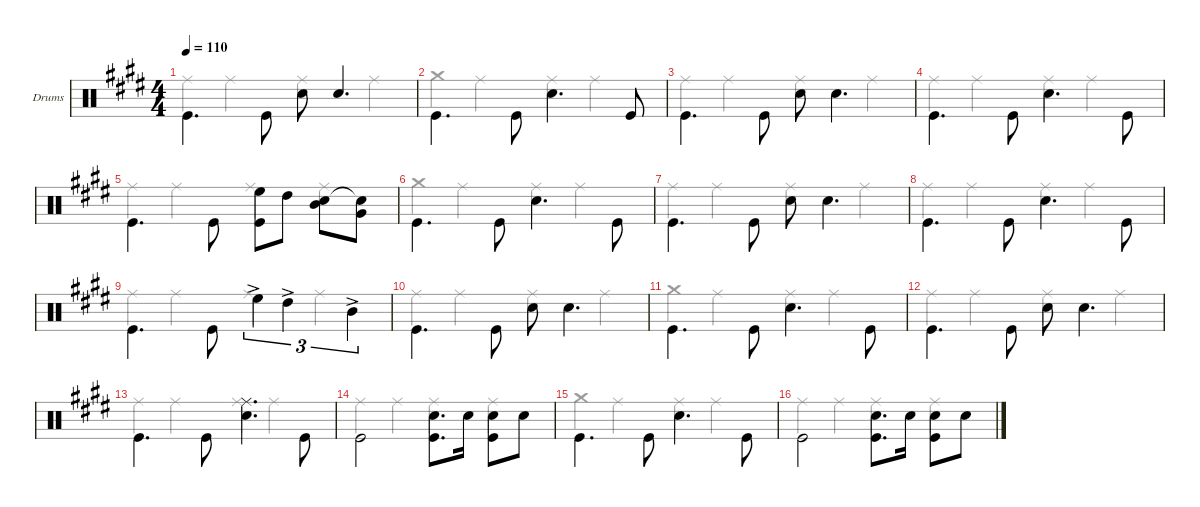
\hideDynamics
\bracketExtendMode groupsimilarinstruments
\multiBarRest
\firstSystemTrackNameOrientation horizontal
\otherSystemsTrackNameOrientation horizontal
\track ("Drumkit" "Drums") {multiBarRest instrument percussion}
\staff {score}
\articulation defaults
\voice
\ts (4 4)
\tempo 110
\clef neutral
\ks e "Kick (hit)".4{d dy f beam invert} "Kick (hit)".8{beam invert} "Snare (hit) 2".8{beam invert} "Snare (hit) 2".4{d}
|
"Kick (hit)".4{d beam invert} "Kick (hit)".8 "Snare (hit) 2".4{d beam invert} "Kick (hit)".8 |
"Kick (hit)".4{d beam invert} "Kick (hit)".8{beam invert} "Snare (hit) 2".8{beam invert} "Snare (hit) 2".4{d beam invert} |
"Kick (hit)".4{d beam invert} "Kick (hit)".8{beam invert} "Snare (hit) 2".4{d beam invert} "Kick (hit)".8{beam invert} |
"Kick (hit)".4{d beam invert} "Kick (hit)".8{beam invert} ("High Floor Tom (hit)" "Kick (hit)").8{beam invert} "High Tom (hit)".8 ("Mid Tom (hit)" "Snare (hit) 2").8{beam invert} ("Very Low Tom (hit)" "Snare (hit) 2"{t}).8 |
"Kick (hit)".4{d beam invert} "Kick (hit)".8 "Snare (hit) 2".4{d beam invert} "Kick (hit)".8{beam invert} |
"Kick (hit)".4{d beam invert} "Kick (hit)".8{beam invert} "Snare (hit) 2".8{beam invert} "Snare (hit) 2".4{d beam invert} |
"Kick (hit)".4{d} "Kick (hit)".8{beam invert} "Snare (hit) 2".4{d} "Kick (hit)".8{beam invert} |
"Kick (hit)".4{d} "Kick (hit)".8{beam invert} "High Floor Tom (hit)"{ac}.4{tu (3 2) beam invert} "High Tom (hit)"{ac}.4{tu (3 2) beam invert} "Mid Tom (hit)"{ac}.4{tu (3 2) beam invert} |
"Kick (hit)".4{d beam invert} "Kick (hit)".8{beam invert} "Snare (hit) 2".8 "Snare (hit) 2".4{d beam invert} |
"Kick (hit)".4{d} "Kick (hit)".8{beam invert} "Snare (hit) 2".4{d} "Kick (hit)".8{beam invert} |
"Kick (hit)".4{d beam invert} "Kick (hit)".8{beam invert} "Snare (hit) 2".8{beam invert} "Snare (hit) 2".4{d beam invert} |
"Kick (hit)".4{d beam invert} "Kick (hit)".8{beam invert} ("Snare (hit) 2" "Ride (middle)").4{d beam invert} "Kick (hit)".8{beam invert} |
"Kick (hit)".2{beam invert} ("Kick (hit)" "Snare (hit) 2").8{d beam invert} "Snare (hit) 2".16 ("Kick (hit)" "Snare (hit) 2").8{beam invert} "Snare (hit) 2".8 |
"Kick (hit)".4{d beam invert} "Kick (hit)".8{beam invert} "Snare (hit) 2".4{d beam invert} "Kick (hit)".8{beam invert} |
"Kick (hit)".2{beam invert} ("Kick (hit)" "Snare (hit) 2").8{d beam invert} "Snare (hit) 2".16 ("Kick (hit)" "Snare (hit) 2").8{beam invert} "Snare (hit) 2".8
\voice
\clef neutral
\ottava regular
\simile none
\ks e
|
|
|
|
|
|
|
|
|
|
|
|
|
|
|
\voice
\clef neutral
\ottava regular
\simile none
\ks e
|
|
|
|
|
|
|
|
|
|
|
|
|
|
|
\voice
\clef neutral
\ottava regular
\simile none
\ks e "Ride (middle)".4{dy f} "Ride (middle)".4 "Ride (middle)".4 "Ride (middle)".4
|
"Crash medium (hit)".4 "Ride (middle)".4 "Ride (middle)".4 "Ride (middle)".4 |
"Ride (middle)".4 "Ride (middle)".4 "Ride (middle)".4 "Ride (middle)".4 |
"Ride (middle)".4 "Ride (middle)".4 "Ride (middle)".4 "Ride (middle)".4 |
"Ride (middle)".4 "Ride (middle)".4 "Ride (middle)".4 "Ride (middle)".4 |
"Crash medium (hit)".4 "Ride (middle)".4 "Ride (middle)".4 "Ride (middle)".4 |
"Ride (middle)".4 "Ride (middle)".4 "Ride (middle)".4 "Ride (middle)".4 |
"Ride (middle)".4 "Ride (middle)".4 "Ride (middle)".4 "Ride (middle)".4 |
"Ride (middle)".4 "Ride (middle)".4 "Ride (middle)".4 "Ride (middle)".4 |
"Ride (middle)".4 "Ride (middle)".4 "Ride (middle)".4 "Ride (middle)".4 |
"Crash medium (hit)".4 "Ride (middle)".4 "Ride (middle)".4 "Ride (middle)".4 |
"Ride (middle)".4 "Ride (middle)".4 "Ride (middle)".4 "Ride (middle)".4 |
"Ride (middle)".4 "Ride (middle)".4 "Ride (middle)".4 "Ride (middle)".4 |
"Ride (middle)".4 "Ride (middle)".4 "Ride (middle)".4 "Ride (middle)".4 |
"Crash medium (hit)".4 "Ride (middle)".4 "Ride (middle)".4 "Ride (middle)".4 |
"Ride (middle)".4 "Ride (middle)".4 "Ride (middle)".4 "Ride (middle)".4
